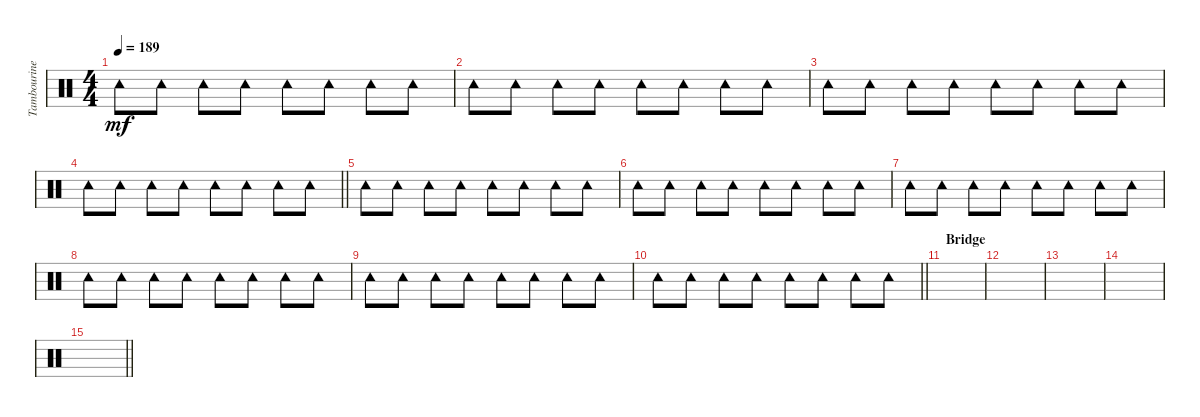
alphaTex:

\track ("Tambourine" "Tambourine") {instrument percussion}
\staff {score}
\articulation defaults
\ts (4 4)
\tempo 189
\clef neutral
\ks c "Tambourine (hit)".8{dy mf} "Tambourine (hit)".8 "Tambourine (hit)".8 "Tambourine (hit)".8 "Tambourine (hit)".8 "Tambourine (hit)".8 "Tambourine (hit)".8 "Tambourine (hit)".8
|
"Tambourine (hit)".8 "Tambourine (hit)".8 "Tambourine (hit)".8 "Tambourine (hit)".8 "Tambourine (hit)".8 "Tambourine (hit)".8 "Tambourine (hit)".8 "Tambourine (hit)".8 |
"Tambourine (hit)".8 "Tambourine (hit)".8 "Tambourine (hit)".8 "Tambourine (hit)".8 "Tambourine (hit)".8 "Tambourine (hit)".8 "Tambourine (hit)".8 "Tambourine (hit)".8 |
\barLineRight lightlight "Tambourine (hit)".8 "Tambourine (hit)".8 "Tambourine (hit)".8 "Tambourine (hit)".8 "Tambourine (hit)".8 "Tambourine (hit)".8 "Tambourine (hit)".8 "Tambourine (hit)".8
|
"Tambourine (hit)".8 "Tambourine (hit)".8 "Tambourine (hit)".8 "Tambourine (hit)".8 "Tambourine (hit)".8 "Tambourine (hit)".8 "Tambourine (hit)".8 "Tambourine (hit)".8 |
"Tambourine (hit)".8 "Tambourine (hit)".8 "Tambourine (hit)".8 "Tambourine (hit)".8 "Tambourine (hit)".8 "Tambourine (hit)".8 "Tambourine (hit)".8 "Tambourine (hit)".8 |
"Tambourine (hit)".8 "Tambourine (hit)".8 "Tambourine (hit)".8 "Tambourine (hit)".8 "Tambourine (hit)".8 "Tambourine (hit)".8 "Tambourine (hit)".8 "Tambourine (hit)".8 |
"Tambourine (hit)".8 "Tambourine (hit)".8 "Tambourine (hit)".8 "Tambourine (hit)".8 "Tambourine (hit)".8 "Tambourine (hit)".8 "Tambourine (hit)".8 "Tambourine (hit)".8 |
"Tambourine (hit)".8 "Tambourine (hit)".8 "Tambourine (hit)".8 "Tambourine (hit)".8 "Tambourine (hit)".8 "Tambourine (hit)".8 "Tambourine (hit)".8 "Tambourine (hit)".8 |
\barLineRight lightlight "Tambourine (hit)".8 "Tambourine (hit)".8 "Tambourine (hit)".8 "Tambourine (hit)".8 "Tambourine (hit)".8 "Tambourine (hit)".8 "Tambourine (hit)".8 "Tambourine (hit)".8
|
\section ("" "Bridge")
|
|
|
|
\barLineRight lightlight
